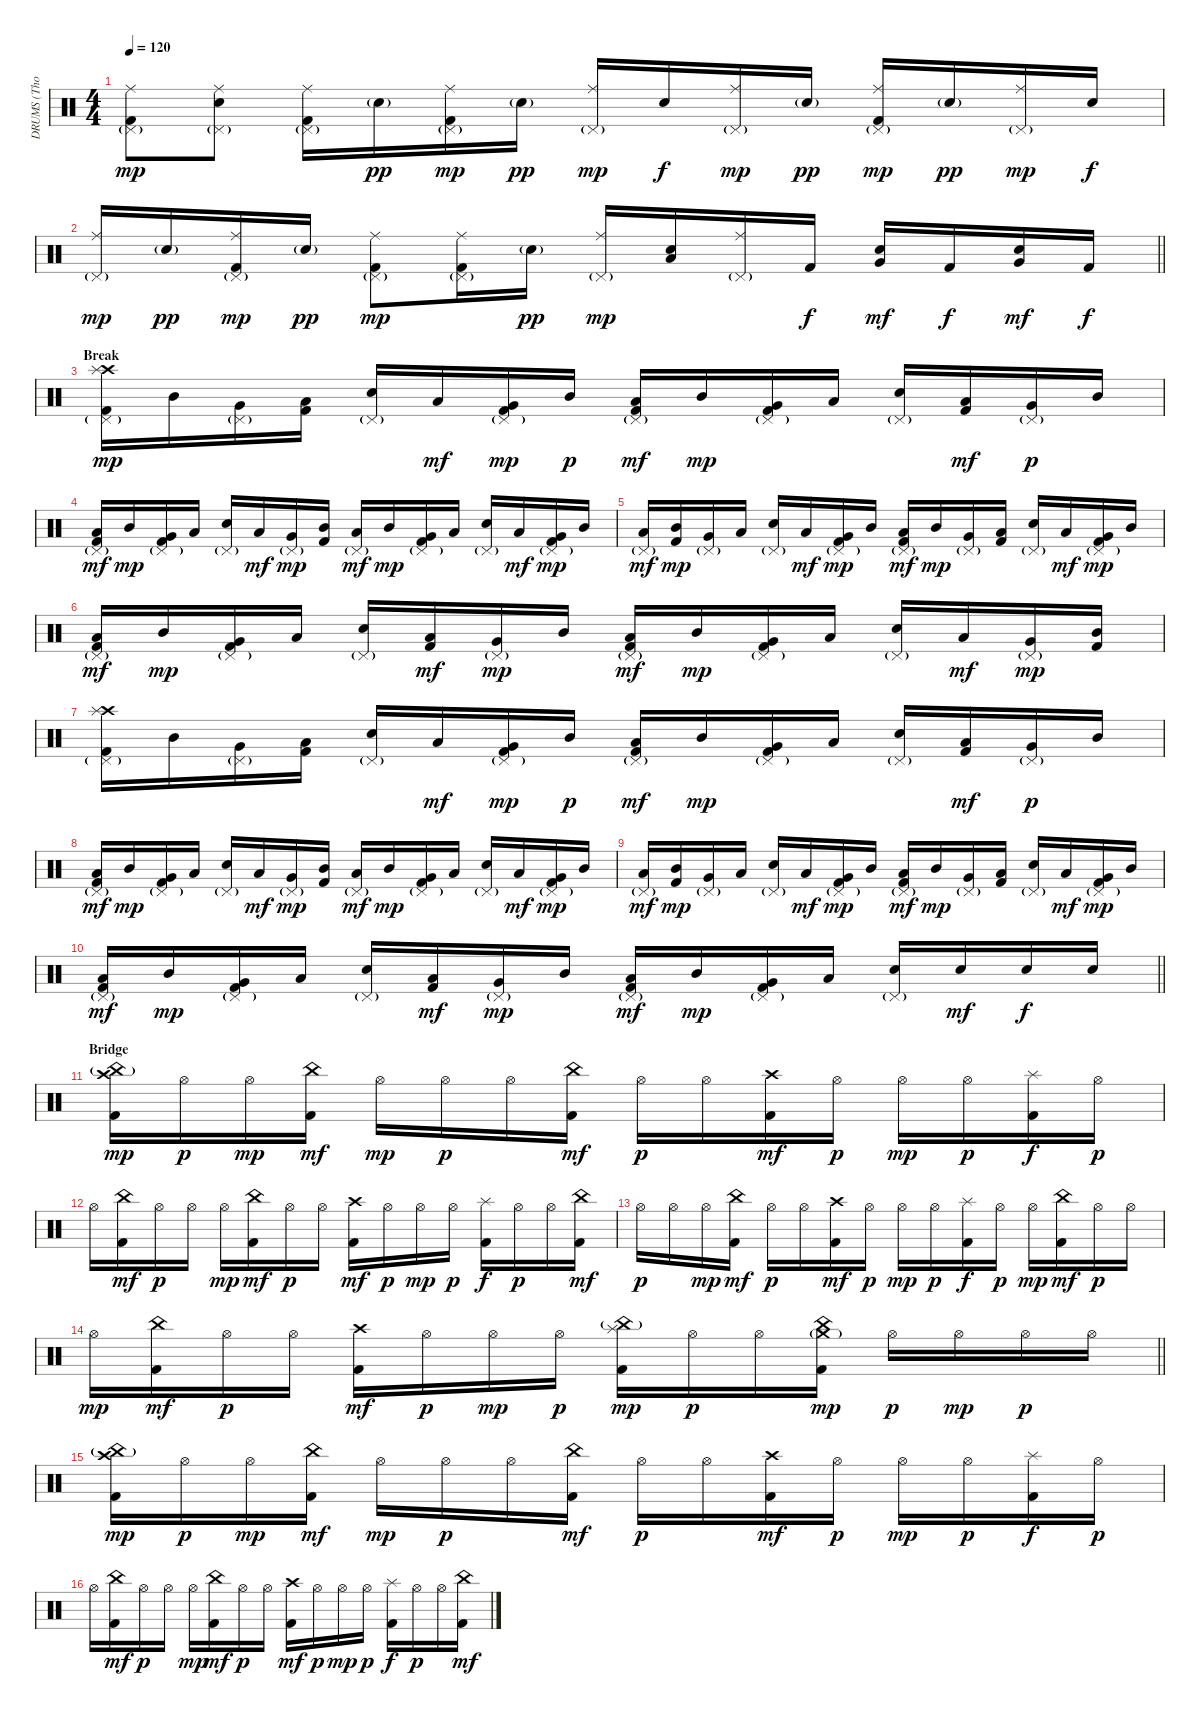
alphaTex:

\track ("DRUMS (Thomas Haake)" "DRUMS (Tho") {instrument percussion}
\staff {score}
\articulation defaults
\ts (4 4)
\tempo 120
\clef neutral
\ks c
("Ride (middle)" "Pedal Hi-Hat (hit)"{g} "Kick (hit) 2").8{dy mp} ("Ride (middle)" "Pedal Hi-Hat (hit)"{g} "Electric Snare (hit)").8 ("Ride (middle)" "Pedal Hi-Hat (hit)"{g} "Kick (hit) 2").16 "Electric Snare (hit)"{g}.16{dy pp} ("Ride (middle)" "Pedal Hi-Hat (hit)"{g} "Kick (hit) 2").16{dy mp} "Electric Snare (hit)"{g}.16{dy pp} ("Ride (middle)" "Pedal Hi-Hat (hit)"{g}).16{dy mp} "Electric Snare (hit)".16{dy f} ("Ride (middle)" "Pedal Hi-Hat (hit)"{g}).16{dy mp} "Electric Snare (hit)"{g}.16{dy pp} ("Ride (middle)" "Pedal Hi-Hat (hit)"{g} "Kick (hit) 2").16{dy mp} "Electric Snare (hit)"{g}.16{dy pp} ("Ride (middle)" "Pedal Hi-Hat (hit)"{g}).16{dy mp} "Electric Snare (hit)".16{dy f} |
\barLineRight lightlight
("Ride (middle)" "Pedal Hi-Hat (hit)"{g}).16{dy mp} "Electric Snare (hit)"{g}.16{dy pp} ("Ride (middle)" "Pedal Hi-Hat (hit)"{g} "Kick (hit) 2").16{dy mp} "Electric Snare (hit)"{g}.16{dy pp} ("Ride (middle)" "Pedal Hi-Hat (hit)"{g} "Kick (hit) 2").8{dy mp} ("Ride (middle)" "Pedal Hi-Hat (hit)"{g} "Kick (hit) 2").16 "Electric Snare (hit)"{g}.16{dy pp} ("Ride (middle)" "Pedal Hi-Hat (hit)"{g}).16{dy mp} ("Low Tom (hit)" "Electric Snare (hit)").16 ("Ride (middle)" "Pedal Hi-Hat (hit)"{g}).16 "Kick (hit) 2".16{dy f} ("Very Low Tom (hit)" "Electric Snare (hit)").16{bd 120 dy mf} "Kick (hit) 2".16{dy f} ("Very Low Tom (hit)" "Electric Snare (hit)").16{bd 60 dy mf} "Kick (hit) 2".16{dy f} |
\section ("" "Break")
("Pedal Hi-Hat (hit)"{g} "Crash high (hit)" "Splash (hit)" "Kick (hit) 2").16{dy mp} "Mid Tom (hit)".16 ("Pedal Hi-Hat (hit)"{g} "Very Low Tom (hit)").16 ("Low Tom (hit)" "Kick (hit) 2").16 ("Pedal Hi-Hat (hit)"{g} "Electric Snare (hit)").16 "Low Tom (hit)".16{dy mf} ("Pedal Hi-Hat (hit)"{g} "Very Low Tom (hit)" "Kick (hit) 2").16{dy mp} "Mid Tom (hit)".16{dy p} ("Pedal Hi-Hat (hit)"{g} "Low Floor Tom (hit)" "Kick (hit) 2").16{dy mf} "Mid Tom (hit)".16{dy mp} ("Pedal Hi-Hat (hit)"{g} "Very Low Tom (hit)" "Kick (hit) 2").16 "Low Tom (hit)".16 ("Pedal Hi-Hat (hit)"{g} "Electric Snare (hit)").16 ("Low Tom (hit)" "Kick (hit) 2").16{dy mf} ("Pedal Hi-Hat (hit)"{g} "Very Low Tom (hit)").16{dy p} "Mid Tom (hit)".16 |
("Pedal Hi-Hat (hit)"{g} "Low Floor Tom (hit)" "Kick (hit) 2").16{dy mf} "Mid Tom (hit)".16{dy mp} ("Pedal Hi-Hat (hit)"{g} "Very Low Tom (hit)" "Kick (hit) 2").16 "Low Tom (hit)".16 ("Pedal Hi-Hat (hit)"{g} "Electric Snare (hit)").16 "Low Tom (hit)".16{dy mf} ("Pedal Hi-Hat (hit)"{g} "Very Low Tom (hit)").16{dy mp} ("Mid Tom (hit)" "Kick (hit) 2").16 ("Pedal Hi-Hat (hit)"{g} "Low Floor Tom (hit)").16{dy mf} "Mid Tom (hit)".16{dy mp} ("Pedal Hi-Hat (hit)"{g} "Very Low Tom (hit)" "Kick (hit) 2").16 "Low Tom (hit)".16 ("Pedal Hi-Hat (hit)"{g} "Electric Snare (hit)").16 "Low Tom (hit)".16{dy mf} ("Pedal Hi-Hat (hit)"{g} "Very Low Tom (hit)" "Kick (hit) 2").16{dy mp} "Mid Tom (hit)".16 |
("Pedal Hi-Hat (hit)"{g} "Low Floor Tom (hit)").16{dy mf} ("Mid Tom (hit)" "Kick (hit) 2").16{dy mp} ("Pedal Hi-Hat (hit)"{g} "Very Low Tom (hit)").16 "Low Tom (hit)".16 ("Pedal Hi-Hat (hit)"{g} "Electric Snare (hit)").16 "Low Tom (hit)".16{dy mf} ("Pedal Hi-Hat (hit)"{g} "Very Low Tom (hit)" "Kick (hit) 2").16{dy mp} "Mid Tom (hit)".16 ("Pedal Hi-Hat (hit)"{g} "Low Floor Tom (hit)" "Kick (hit) 2").16{dy mf} "Mid Tom (hit)".16{dy mp} ("Pedal Hi-Hat (hit)"{g} "Very Low Tom (hit)").16 ("Low Tom (hit)" "Kick (hit) 2").16 ("Pedal Hi-Hat (hit)"{g} "Electric Snare (hit)").16 "Low Tom (hit)".16{dy mf} ("Pedal Hi-Hat (hit)"{g} "Very Low Tom (hit)" "Kick (hit) 2").16{dy mp} "Mid Tom (hit)".16 |
("Pedal Hi-Hat (hit)"{g} "Low Floor Tom (hit)" "Kick (hit) 2").16{dy mf} "Mid Tom (hit)".16{dy mp} ("Pedal Hi-Hat (hit)"{g} "Very Low Tom (hit)" "Kick (hit) 2").16 "Low Tom (hit)".16 ("Pedal Hi-Hat (hit)"{g} "Electric Snare (hit)").16 ("Low Tom (hit)" "Kick (hit) 2").16{dy mf} ("Pedal Hi-Hat (hit)"{g} "Very Low Tom (hit)").16{dy mp} "Mid Tom (hit)".16 ("Pedal Hi-Hat (hit)"{g} "Low Floor Tom (hit)" "Kick (hit) 2").16{dy mf} "Mid Tom (hit)".16{dy mp} ("Pedal Hi-Hat (hit)"{g} "Very Low Tom (hit)" "Kick (hit) 2").16 "Low Tom (hit)".16 ("Pedal Hi-Hat (hit)"{g} "Electric Snare (hit)").16 "Low Tom (hit)".16{dy mf} ("Pedal Hi-Hat (hit)"{g} "Very Low Tom (hit)").16{dy mp} ("Mid Tom (hit)" "Kick (hit) 2").16 |
("Pedal Hi-Hat (hit)"{g} "Crash high (hit)" "Splash (hit)" "Kick (hit) 2").16 "Mid Tom (hit)".16 ("Pedal Hi-Hat (hit)"{g} "Very Low Tom (hit)").16 ("Low Tom (hit)" "Kick (hit) 2").16 ("Pedal Hi-Hat (hit)"{g} "Electric Snare (hit)").16 "Low Tom (hit)".16{dy mf} ("Pedal Hi-Hat (hit)"{g} "Very Low Tom (hit)" "Kick (hit) 2").16{dy mp} "Mid Tom (hit)".16{dy p} ("Pedal Hi-Hat (hit)"{g} "Low Floor Tom (hit)" "Kick (hit) 2").16{dy mf} "Mid Tom (hit)".16{dy mp} ("Pedal Hi-Hat (hit)"{g} "Very Low Tom (hit)" "Kick (hit) 2").16 "Low Tom (hit)".16 ("Pedal Hi-Hat (hit)"{g} "Electric Snare (hit)").16 ("Low Tom (hit)" "Kick (hit) 2").16{dy mf} ("Pedal Hi-Hat (hit)"{g} "Very Low Tom (hit)").16{dy p} "Mid Tom (hit)".16 |
("Pedal Hi-Hat (hit)"{g} "Low Floor Tom (hit)" "Kick (hit) 2").16{dy mf} "Mid Tom (hit)".16{dy mp} ("Pedal Hi-Hat (hit)"{g} "Very Low Tom (hit)" "Kick (hit) 2").16 "Low Tom (hit)".16 ("Pedal Hi-Hat (hit)"{g} "Electric Snare (hit)").16 "Low Tom (hit)".16{dy mf} ("Pedal Hi-Hat (hit)"{g} "Very Low Tom (hit)").16{dy mp} ("Mid Tom (hit)" "Kick (hit) 2").16 ("Pedal Hi-Hat (hit)"{g} "Low Floor Tom (hit)").16{dy mf} "Mid Tom (hit)".16{dy mp} ("Pedal Hi-Hat (hit)"{g} "Very Low Tom (hit)" "Kick (hit) 2").16 "Low Tom (hit)".16 ("Pedal Hi-Hat (hit)"{g} "Electric Snare (hit)").16 "Low Tom (hit)".16{dy mf} ("Pedal Hi-Hat (hit)"{g} "Very Low Tom (hit)" "Kick (hit) 2").16{dy mp} "Mid Tom (hit)".16 |
("Pedal Hi-Hat (hit)"{g} "Low Floor Tom (hit)").16{dy mf} ("Mid Tom (hit)" "Kick (hit) 2").16{dy mp} ("Pedal Hi-Hat (hit)"{g} "Very Low Tom (hit)").16 "Low Tom (hit)".16 ("Pedal Hi-Hat (hit)"{g} "Electric Snare (hit)").16 "Low Tom (hit)".16{dy mf} ("Pedal Hi-Hat (hit)"{g} "Very Low Tom (hit)" "Kick (hit) 2").16{dy mp} "Mid Tom (hit)".16 ("Pedal Hi-Hat (hit)"{g} "Low Floor Tom (hit)" "Kick (hit) 2").16{dy mf} "Mid Tom (hit)".16{dy mp} ("Pedal Hi-Hat (hit)"{g} "Very Low Tom (hit)").16 ("Low Tom (hit)" "Kick (hit) 2").16 ("Pedal Hi-Hat (hit)"{g} "Electric Snare (hit)").16 "Low Tom (hit)".16{dy mf} ("Pedal Hi-Hat (hit)"{g} "Very Low Tom (hit)" "Kick (hit) 2").16{dy mp} "Mid Tom (hit)".16 |
\barLineRight lightlight
("Pedal Hi-Hat (hit)"{g} "Low Floor Tom (hit)" "Kick (hit) 2").16{dy mf} "Mid Tom (hit)".16{dy mp} ("Pedal Hi-Hat (hit)"{g} "Very Low Tom (hit)" "Kick (hit) 2").16 "Low Tom (hit)".16 ("Pedal Hi-Hat (hit)"{g} "Electric Snare (hit)").16 ("Low Tom (hit)" "Kick (hit) 2").16{dy mf} ("Pedal Hi-Hat (hit)"{g} "Very Low Tom (hit)").16{dy mp} "Mid Tom (hit)".16 ("Pedal Hi-Hat (hit)"{g} "Low Floor Tom (hit)" "Kick (hit) 2").16{dy mf} "Mid Tom (hit)".16{dy mp} ("Pedal Hi-Hat (hit)"{g} "Very Low Tom (hit)" "Kick (hit) 2").16 "Low Tom (hit)".16 ("Pedal Hi-Hat (hit)"{g} "Electric Snare (hit)").16 "Electric Snare (hit)".16{dy mf} "Electric Snare (hit)".16{dy f} "Electric Snare (hit)".16 |
\section ("" "Bridge")
("Crash high (hit)" "China (hit)"{g} "Kick (hit) 2").16{dy mp} "Hi-Hat (open)".16{dy p} "Hi-Hat (open)".16{dy mp} ("China (hit)" "Kick (hit) 2").16{dy mf} "Hi-Hat (open)".16{dy mp} "Hi-Hat (open)".16{dy p} "Hi-Hat (open)".16 ("China (hit)" "Kick (hit) 2").16{dy mf} "Hi-Hat (open)".16{dy p} "Hi-Hat (open)".16 ("Crash high (hit)" "Kick (hit) 2").16{dy mf} "Hi-Hat (open)".16{dy p} "Hi-Hat (open)".16{dy mp} "Hi-Hat (open)".16{dy p} ("Splash (hit)" "Kick (hit) 2").16{dy f} "Hi-Hat (open)".16{dy p} |
"Hi-Hat (open)".16 ("China (hit)" "Kick (hit) 2").16{dy mf} "Hi-Hat (open)".16{dy p} "Hi-Hat (open)".16 "Hi-Hat (open)".16{dy mp} ("China (hit)" "Kick (hit) 2").16{dy mf} "Hi-Hat (open)".16{dy p} "Hi-Hat (open)".16 ("Crash high (hit)" "Kick (hit) 2").16{dy mf} "Hi-Hat (open)".16{dy p} "Hi-Hat (open)".16{dy mp} "Hi-Hat (open)".16{dy p} ("Splash (hit)" "Kick (hit) 2").16{dy f} "Hi-Hat (open)".16{dy p} "Hi-Hat (open)".16 ("China (hit)" "Kick (hit) 2").16{dy mf} |
"Hi-Hat (open)".16{dy p} "Hi-Hat (open)".16 "Hi-Hat (open)".16{dy mp} ("China (hit)" "Kick (hit) 2").16{dy mf} "Hi-Hat (open)".16{dy p} "Hi-Hat (open)".16 ("Crash high (hit)" "Kick (hit) 2").16{dy mf} "Hi-Hat (open)".16{dy p} "Hi-Hat (open)".16{dy mp} "Hi-Hat (open)".16{dy p} ("Splash (hit)" "Kick (hit) 2").16{dy f} "Hi-Hat (open)".16{dy p} "Hi-Hat (open)".16{dy mp} ("China (hit)" "Kick (hit) 2").16{dy mf} "Hi-Hat (open)".16{dy p} "Hi-Hat (open)".16 |
\barLineRight lightlight "Hi-Hat (open)".16{dy mp}
("China (hit)" "Kick (hit) 2").16{dy mf} "Hi-Hat (open)".16{dy p} "Hi-Hat (open)".16 ("Crash high (hit)" "Kick (hit) 2").16{dy mf} "Hi-Hat (open)".16{dy p} "Hi-Hat (open)".16{dy mp} "Hi-Hat (open)".16{dy p} ("Splash (hit)" "China (hit)"{g} "Kick (hit) 2").16{dy mp} "Hi-Hat (open)".16{dy p} "Hi-Hat (open)".16 ("China (hit)" "Crash medium (hit)"{g} "Kick (hit) 2").16{dy mp} "Hi-Hat (open)".16{dy p} "Hi-Hat (open)".16{dy mp} "Hi-Hat (open)".16{dy p} "Hi-Hat (open)".16 |
("Crash high (hit)" "China (hit)"{g} "Kick (hit) 2").16{dy mp} "Hi-Hat (open)".16{dy p} "Hi-Hat (open)".16{dy mp} ("China (hit)" "Kick (hit) 2").16{dy mf} "Hi-Hat (open)".16{dy mp} "Hi-Hat (open)".16{dy p} "Hi-Hat (open)".16 ("China (hit)" "Kick (hit) 2").16{dy mf} "Hi-Hat (open)".16{dy p} "Hi-Hat (open)".16 ("Crash high (hit)" "Kick (hit) 2").16{dy mf} "Hi-Hat (open)".16{dy p} "Hi-Hat (open)".16{dy mp} "Hi-Hat (open)".16{dy p} ("Splash (hit)" "Kick (hit) 2").16{dy f} "Hi-Hat (open)".16{dy p} |
"Hi-Hat (open)".16 ("China (hit)" "Kick (hit) 2").16{dy mf} "Hi-Hat (open)".16{dy p} "Hi-Hat (open)".16 "Hi-Hat (open)".16{dy mp} ("China (hit)" "Kick (hit) 2").16{dy mf} "Hi-Hat (open)".16{dy p} "Hi-Hat (open)".16 ("Crash high (hit)" "Kick (hit) 2").16{dy mf} "Hi-Hat (open)".16{dy p} "Hi-Hat (open)".16{dy mp} "Hi-Hat (open)".16{dy p} ("Splash (hit)" "Kick (hit) 2").16{dy f} "Hi-Hat (open)".16{dy p} "Hi-Hat (open)".16 ("China (hit)" "Kick (hit) 2").16{dy mf}
